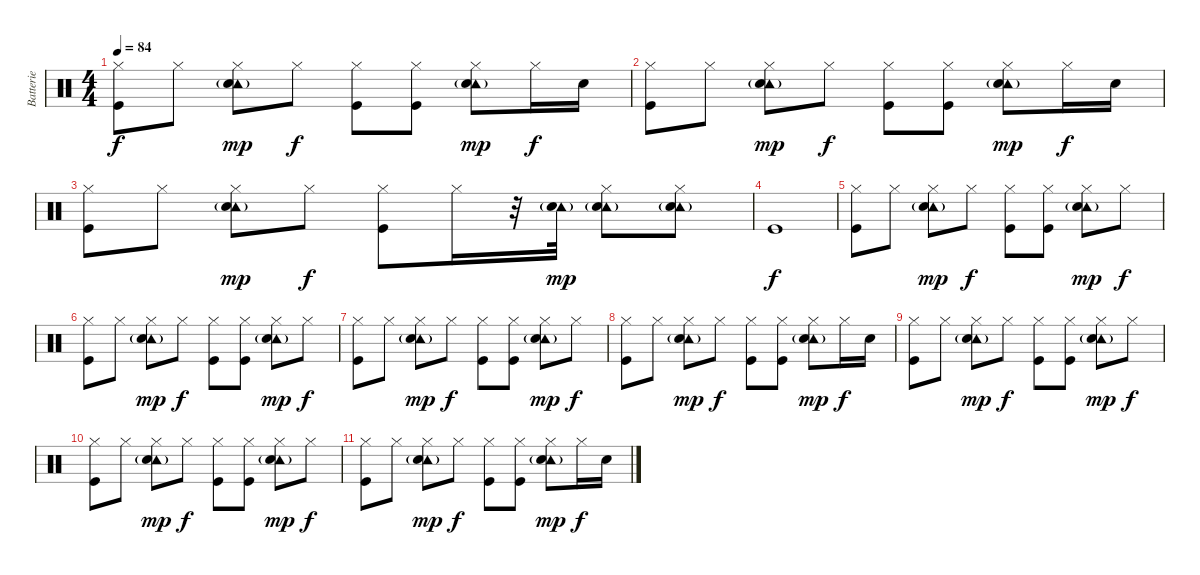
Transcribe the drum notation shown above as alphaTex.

\track ("Batterie" "Batterie") {instrument percussion}
\staff {score}
\articulation defaults
\ts (4 4)
\tempo 84
\clef neutral
\ks c
("Hi-Hat (closed)" "Kick (hit)").8{dy f} "Hi-Hat (closed)".8 ("Hi-Hat (closed)" "Tambourine (hit)"{g} "Snare (hit) 2").8{dy mp} "Hi-Hat (closed)".8{dy f} ("Hi-Hat (closed)" "Kick (hit)").8 ("Hi-Hat (closed)" "Kick (hit)").8 ("Hi-Hat (closed)" "Tambourine (hit)"{g} "Snare (hit) 2").8{dy mp} "Hi-Hat (closed)".16{dy f} "Snare (hit) 2".16 |
("Hi-Hat (closed)" "Kick (hit)").8 "Hi-Hat (closed)".8 ("Hi-Hat (closed)" "Tambourine (hit)"{g} "Snare (hit) 2").8{dy mp} "Hi-Hat (closed)".8{dy f} ("Hi-Hat (closed)" "Kick (hit)").8 ("Hi-Hat (closed)" "Kick (hit)").8 ("Hi-Hat (closed)" "Tambourine (hit)"{g} "Snare (hit) 2").8{dy mp} "Hi-Hat (closed)".16{dy f} "Snare (hit) 2".16 |
("Hi-Hat (closed)" "Kick (hit)").8 "Hi-Hat (closed)".8 ("Hi-Hat (closed)" "Tambourine (hit)"{g} "Snare (hit) 2").8{dy mp} "Hi-Hat (closed)".8{dy f} ("Hi-Hat (closed)" "Kick (hit)").8 "Hi-Hat (closed)".16 r.32 ("Tambourine (hit)"{g} "Snare (hit) 2").32{dy mp} ("Hi-Hat (closed)" "Tambourine (hit)"{g} "Snare (hit) 2").8 ("Hi-Hat (closed)" "Tambourine (hit)"{g} "Snare (hit) 2").8 |
"Kick (hit)".1{dy f} |
\section ("" "")
("Hi-Hat (closed)" "Kick (hit)").8 "Hi-Hat (closed)".8 ("Hi-Hat (closed)" "Tambourine (hit)"{g} "Snare (hit) 2").8{dy mp} "Hi-Hat (closed)".8{dy f} ("Hi-Hat (closed)" "Kick (hit)").8 ("Hi-Hat (closed)" "Kick (hit)").8 ("Hi-Hat (closed)" "Tambourine (hit)"{g} "Snare (hit) 2").8{dy mp} "Hi-Hat (closed)".8{dy f} |
("Hi-Hat (closed)" "Kick (hit)").8 "Hi-Hat (closed)".8 ("Hi-Hat (closed)" "Tambourine (hit)"{g} "Snare (hit) 2").8{dy mp} "Hi-Hat (closed)".8{dy f} ("Hi-Hat (closed)" "Kick (hit)").8 ("Hi-Hat (closed)" "Kick (hit)").8 ("Hi-Hat (closed)" "Tambourine (hit)"{g} "Snare (hit) 2").8{dy mp} "Hi-Hat (closed)".8{dy f} |
("Hi-Hat (closed)" "Kick (hit)").8 "Hi-Hat (closed)".8 ("Hi-Hat (closed)" "Tambourine (hit)"{g} "Snare (hit) 2").8{dy mp} "Hi-Hat (closed)".8{dy f} ("Hi-Hat (closed)" "Kick (hit)").8 ("Hi-Hat (closed)" "Kick (hit)").8 ("Hi-Hat (closed)" "Tambourine (hit)"{g} "Snare (hit) 2").8{dy mp} "Hi-Hat (closed)".8{dy f} |
("Hi-Hat (closed)" "Kick (hit)").8 "Hi-Hat (closed)".8 ("Hi-Hat (closed)" "Tambourine (hit)"{g} "Snare (hit) 2").8{dy mp} "Hi-Hat (closed)".8{dy f} ("Hi-Hat (closed)" "Kick (hit)").8 ("Hi-Hat (closed)" "Kick (hit)").8 ("Hi-Hat (closed)" "Tambourine (hit)"{g} "Snare (hit) 2").8{dy mp} "Hi-Hat (closed)".16{dy f} "Snare (hit) 2".16 |
("Hi-Hat (closed)" "Kick (hit)").8 "Hi-Hat (closed)".8 ("Hi-Hat (closed)" "Tambourine (hit)"{g} "Snare (hit) 2").8{dy mp} "Hi-Hat (closed)".8{dy f} ("Hi-Hat (closed)" "Kick (hit)").8 ("Hi-Hat (closed)" "Kick (hit)").8 ("Hi-Hat (closed)" "Tambourine (hit)"{g} "Snare (hit) 2").8{dy mp} "Hi-Hat (closed)".8{dy f} |
("Hi-Hat (closed)" "Kick (hit)").8 "Hi-Hat (closed)".8 ("Hi-Hat (closed)" "Tambourine (hit)"{g} "Snare (hit) 2").8{dy mp} "Hi-Hat (closed)".8{dy f} ("Hi-Hat (closed)" "Kick (hit)").8 ("Hi-Hat (closed)" "Kick (hit)").8 ("Hi-Hat (closed)" "Tambourine (hit)"{g} "Snare (hit) 2").8{dy mp} "Hi-Hat (closed)".8{dy f} |
("Hi-Hat (closed)" "Kick (hit)").8 "Hi-Hat (closed)".8 ("Hi-Hat (closed)" "Tambourine (hit)"{g} "Snare (hit) 2").8{dy mp} "Hi-Hat (closed)".8{dy f} ("Hi-Hat (closed)" "Kick (hit)").8 ("Hi-Hat (closed)" "Kick (hit)").8 ("Hi-Hat (closed)" "Tambourine (hit)"{g} "Snare (hit) 2").8{dy mp} "Hi-Hat (closed)".16{dy f} "Snare (hit) 2".16
